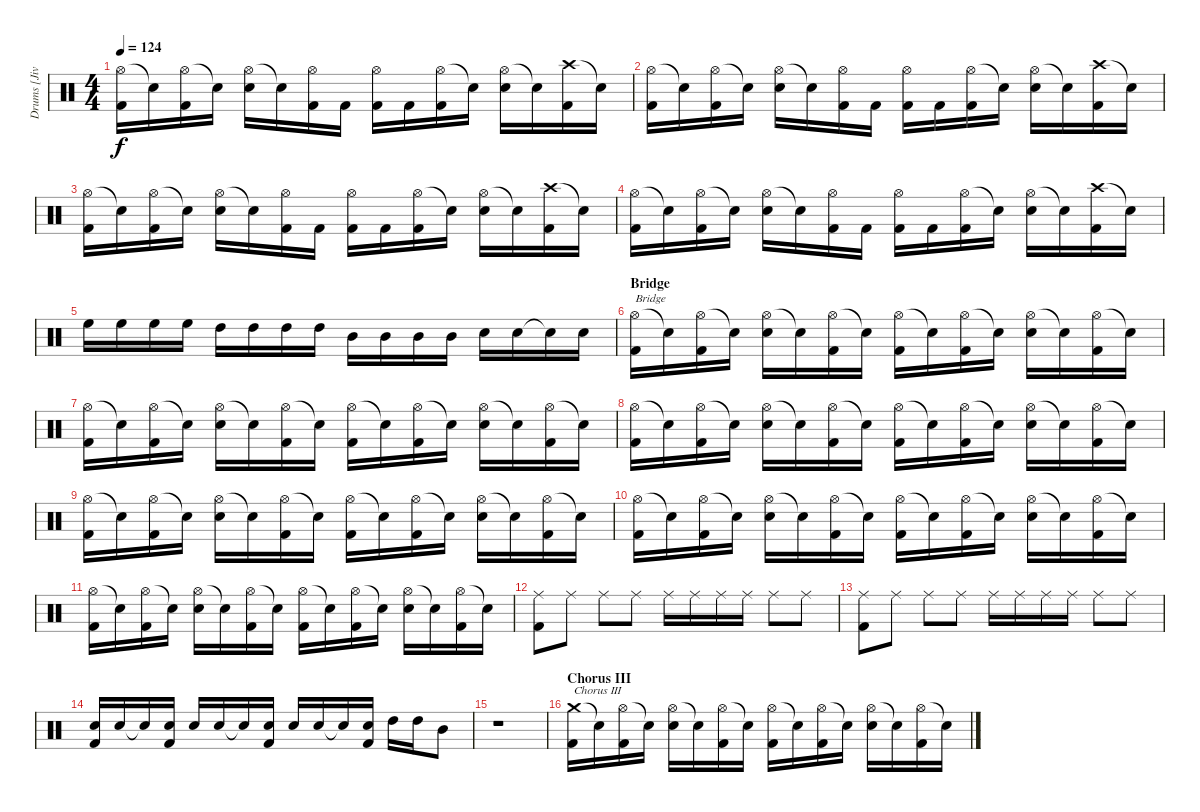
\track ("Drums [Jivarp]" "Drums [Jiv") {instrument percussion}
\staff {score}
\articulation defaults
\ts (4 4)
\tempo 124
\clef neutral
\ks c
("Hi-Hat (open)" "Kick (hit) 2").16{dy f} "Snare (hit)"{t}.16 ("Hi-Hat (open)" "Kick (hit) 2").16 "Snare (hit)"{t}.16 ("Hi-Hat (open)" "Electric Snare (hit)").16 "Snare (hit)"{t}.16 ("Hi-Hat (open)" "Kick (hit) 2").16 "Kick (hit) 2".16 ("Hi-Hat (open)" "Kick (hit) 2").16 "Kick (hit) 2".16 ("Hi-Hat (open)" "Kick (hit) 2").16 "Snare (hit)"{t}.16 ("Hi-Hat (open)" "Electric Snare (hit)").16 "Snare (hit)"{t}.16 ("Crash high (hit)" "Kick (hit) 2").16 "Snare (hit)"{t}.16 |
("Hi-Hat (open)" "Kick (hit) 2").16 "Snare (hit)"{t}.16 ("Hi-Hat (open)" "Kick (hit) 2").16 "Snare (hit)"{t}.16 ("Hi-Hat (open)" "Electric Snare (hit)").16 "Snare (hit)"{t}.16 ("Hi-Hat (open)" "Kick (hit) 2").16 "Kick (hit) 2".16 ("Hi-Hat (open)" "Kick (hit) 2").16 "Kick (hit) 2".16 ("Hi-Hat (open)" "Kick (hit) 2").16 "Snare (hit)"{t}.16 ("Hi-Hat (open)" "Electric Snare (hit)").16 "Snare (hit)"{t}.16 ("Crash high (hit)" "Kick (hit) 2").16 "Snare (hit)"{t}.16 |
("Hi-Hat (open)" "Kick (hit) 2").16 "Snare (hit)"{t}.16 ("Hi-Hat (open)" "Kick (hit) 2").16 "Snare (hit)"{t}.16 ("Hi-Hat (open)" "Electric Snare (hit)").16 "Snare (hit)"{t}.16 ("Hi-Hat (open)" "Kick (hit) 2").16 "Kick (hit) 2".16 ("Hi-Hat (open)" "Kick (hit) 2").16 "Kick (hit) 2".16 ("Hi-Hat (open)" "Kick (hit) 2").16 "Snare (hit)"{t}.16 ("Hi-Hat (open)" "Electric Snare (hit)").16 "Snare (hit)"{t}.16 ("Crash high (hit)" "Kick (hit) 2").16 "Snare (hit)"{t}.16 |
("Hi-Hat (open)" "Kick (hit) 2").16 "Snare (hit)"{t}.16 ("Hi-Hat (open)" "Kick (hit) 2").16 "Snare (hit)"{t}.16 ("Hi-Hat (open)" "Electric Snare (hit)").16 "Snare (hit)"{t}.16 ("Hi-Hat (open)" "Kick (hit) 2").16 "Kick (hit) 2".16 ("Hi-Hat (open)" "Kick (hit) 2").16 "Kick (hit) 2".16 ("Hi-Hat (open)" "Kick (hit) 2").16 "Snare (hit)"{t}.16 ("Hi-Hat (open)" "Electric Snare (hit)").16 "Snare (hit)"{t}.16 ("Crash high (hit)" "Kick (hit) 2").16 "Snare (hit)"{t}.16 |
"High Floor Tom (hit)".16 "High Floor Tom (hit)".16 "High Floor Tom (hit)".16 "High Floor Tom (hit)".16 "High Tom (hit)".16 "High Tom (hit)".16 "High Tom (hit)".16 "High Tom (hit)".16 "Mid Tom (hit)".16 "Mid Tom (hit)".16 "Mid Tom (hit)".16 "Mid Tom (hit)".16 "Electric Snare (hit)".16 "Electric Snare (hit)".16 "Snare (hit)"{t}.16 "Electric Snare (hit)".16 |
\section ("" "Bridge")
("Hi-Hat (open)" "Kick (hit) 2").16{txt "Bridge"} "Snare (hit)"{t}.16 ("Hi-Hat (open)" "Kick (hit) 2").16 "Snare (hit)"{t}.16 ("Hi-Hat (open)" "Electric Snare (hit)").16 "Snare (hit)"{t}.16 ("Hi-Hat (open)" "Kick (hit) 2").16 "Snare (hit)"{t}.16 ("Hi-Hat (open)" "Kick (hit) 2").16 "Snare (hit)"{t}.16 ("Hi-Hat (open)" "Kick (hit) 2").16 "Snare (hit)"{t}.16 ("Hi-Hat (open)" "Electric Snare (hit)").16 "Snare (hit)"{t}.16 ("Hi-Hat (open)" "Kick (hit) 2").16 "Snare (hit)"{t}.16 |
("Hi-Hat (open)" "Kick (hit) 2").16 "Snare (hit)"{t}.16 ("Hi-Hat (open)" "Kick (hit) 2").16 "Snare (hit)"{t}.16 ("Hi-Hat (open)" "Electric Snare (hit)").16 "Snare (hit)"{t}.16 ("Hi-Hat (open)" "Kick (hit) 2").16 "Snare (hit)"{t}.16 ("Hi-Hat (open)" "Kick (hit) 2").16 "Snare (hit)"{t}.16 ("Hi-Hat (open)" "Kick (hit) 2").16 "Snare (hit)"{t}.16 ("Hi-Hat (open)" "Electric Snare (hit)").16 "Snare (hit)"{t}.16 ("Hi-Hat (open)" "Kick (hit) 2").16 "Snare (hit)"{t}.16 |
("Hi-Hat (open)" "Kick (hit) 2").16 "Snare (hit)"{t}.16 ("Hi-Hat (open)" "Kick (hit) 2").16 "Snare (hit)"{t}.16 ("Hi-Hat (open)" "Electric Snare (hit)").16 "Snare (hit)"{t}.16 ("Hi-Hat (open)" "Kick (hit) 2").16 "Snare (hit)"{t}.16 ("Hi-Hat (open)" "Kick (hit) 2").16 "Snare (hit)"{t}.16 ("Hi-Hat (open)" "Kick (hit) 2").16 "Snare (hit)"{t}.16 ("Hi-Hat (open)" "Electric Snare (hit)").16 "Snare (hit)"{t}.16 ("Hi-Hat (open)" "Kick (hit) 2").16 "Snare (hit)"{t}.16 |
("Hi-Hat (open)" "Kick (hit) 2").16 "Snare (hit)"{t}.16 ("Hi-Hat (open)" "Kick (hit) 2").16 "Snare (hit)"{t}.16 ("Hi-Hat (open)" "Electric Snare (hit)").16 "Snare (hit)"{t}.16 ("Hi-Hat (open)" "Kick (hit) 2").16 "Snare (hit)"{t}.16 ("Hi-Hat (open)" "Kick (hit) 2").16 "Snare (hit)"{t}.16 ("Hi-Hat (open)" "Kick (hit) 2").16 "Snare (hit)"{t}.16 ("Hi-Hat (open)" "Electric Snare (hit)").16 "Snare (hit)"{t}.16 ("Hi-Hat (open)" "Kick (hit) 2").16 "Snare (hit)"{t}.16 |
("Hi-Hat (open)" "Kick (hit) 2").16 "Snare (hit)"{t}.16 ("Hi-Hat (open)" "Kick (hit) 2").16 "Snare (hit)"{t}.16 ("Hi-Hat (open)" "Electric Snare (hit)").16 "Snare (hit)"{t}.16 ("Hi-Hat (open)" "Kick (hit) 2").16 "Snare (hit)"{t}.16 ("Hi-Hat (open)" "Kick (hit) 2").16 "Snare (hit)"{t}.16 ("Hi-Hat (open)" "Kick (hit) 2").16 "Snare (hit)"{t}.16 ("Hi-Hat (open)" "Electric Snare (hit)").16 "Snare (hit)"{t}.16 ("Hi-Hat (open)" "Kick (hit) 2").16 "Snare (hit)"{t}.16 |
("Hi-Hat (open)" "Kick (hit) 2").16 "Snare (hit)"{t}.16 ("Hi-Hat (open)" "Kick (hit) 2").16 "Snare (hit)"{t}.16 ("Hi-Hat (open)" "Electric Snare (hit)").16 "Snare (hit)"{t}.16 ("Hi-Hat (open)" "Kick (hit) 2").16 "Snare (hit)"{t}.16 ("Hi-Hat (open)" "Kick (hit) 2").16 "Snare (hit)"{t}.16 ("Hi-Hat (open)" "Kick (hit) 2").16 "Snare (hit)"{t}.16 ("Hi-Hat (open)" "Electric Snare (hit)").16 "Snare (hit)"{t}.16 ("Hi-Hat (open)" "Kick (hit) 2").16 "Snare (hit)"{t}.16 |
("Ride (middle)" "Kick (hit) 2").8 "Ride (middle)".8 "Ride (middle)".8 "Ride (middle)".8 "Ride (middle)".16 "Ride (middle)".16 "Ride (middle)".16 "Ride (middle)".16 "Ride (middle)".8 "Ride (middle)".8 |
("Ride (middle)" "Kick (hit) 2").8 "Ride (middle)".8 "Ride (middle)".8 "Ride (middle)".8 "Ride (middle)".16 "Ride (middle)".16 "Ride (middle)".16 "Ride (middle)".16 "Ride (middle)".8 "Ride (middle)".8 |
("Electric Snare (hit)" "Kick (hit) 2").16 "Electric Snare (hit)".16 "Snare (hit)"{t}.16 ("Electric Snare (hit)" "Kick (hit) 2").16 "Electric Snare (hit)".16 "Electric Snare (hit)".16 "Snare (hit)"{t}.16 ("Electric Snare (hit)" "Kick (hit) 2").16 "Electric Snare (hit)".16 "Electric Snare (hit)".16 "Snare (hit)"{t}.16 ("Electric Snare (hit)" "Kick (hit) 2").16 "High Tom (hit)".16 "High Tom (hit)".16 "Mid Tom (hit)".8 |
r.1 |
\section ("" "Chorus III")
("Crash medium (hit)" "Kick (hit) 2").16{txt "Chorus III"} "Snare (hit)"{t}.16 ("Hi-Hat (open)" "Kick (hit) 2").16 "Snare (hit)"{t}.16 ("Hi-Hat (open)" "Electric Snare (hit)").16 "Snare (hit)"{t}.16 ("Hi-Hat (open)" "Kick (hit) 2").16 "Snare (hit)"{t}.16 ("Hi-Hat (open)" "Kick (hit) 2").16 "Snare (hit)"{t}.16 ("Hi-Hat (open)" "Kick (hit) 2").16 "Snare (hit)"{t}.16 ("Hi-Hat (open)" "Electric Snare (hit)").16 "Snare (hit)"{t}.16 ("Hi-Hat (open)" "Kick (hit) 2").16 "Snare (hit)"{t}.16
